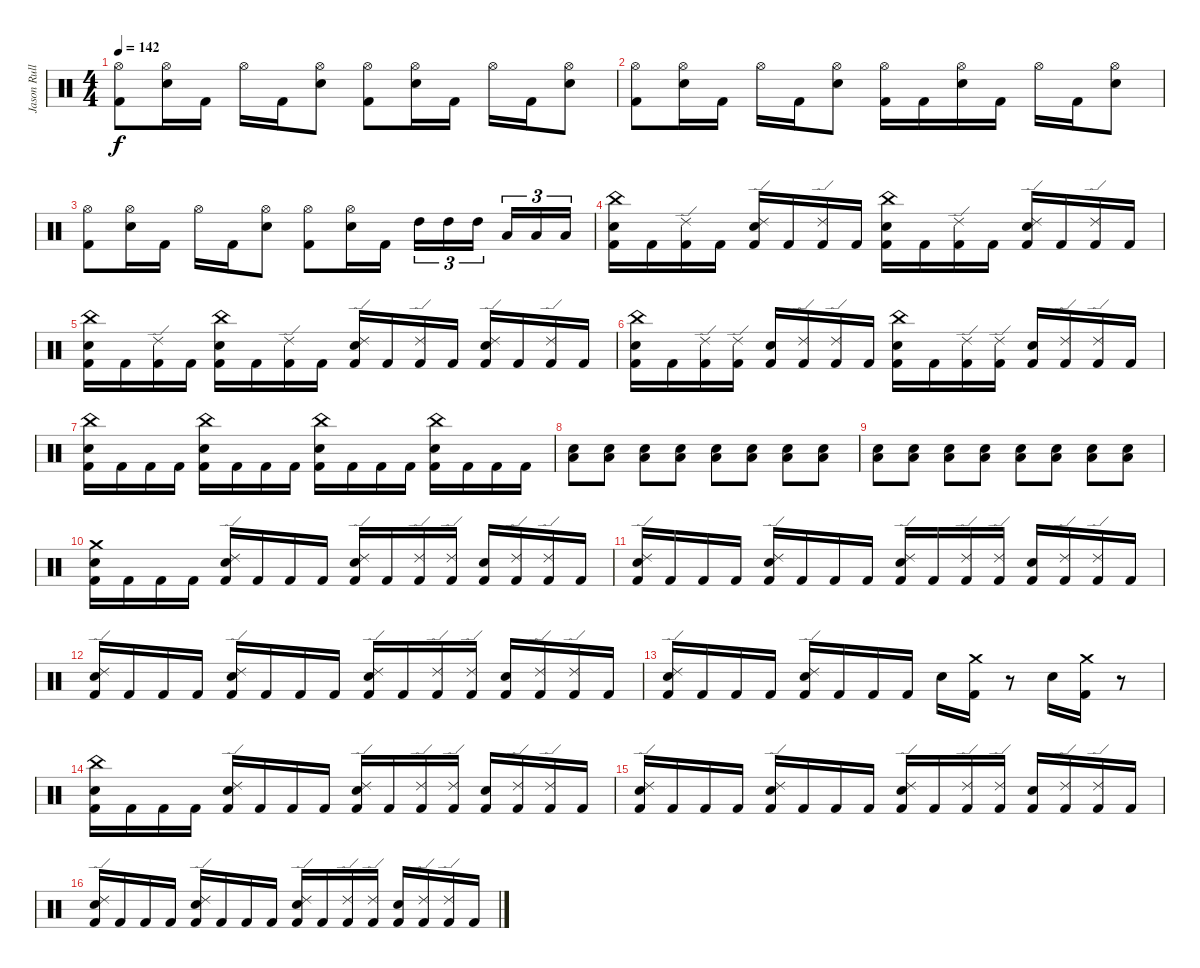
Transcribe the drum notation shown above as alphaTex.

\track ("Jason Rullo (drums)" "Jason Rull") {solo instrument percussion}
\staff {score}
\articulation defaults
\ts (4 4)
\tempo 142
\clef neutral
\ks c
("Hi-Hat (open)" "Kick (hit) 2").8{dy f} ("Hi-Hat (open)" "Electric Snare (hit)").16 "Kick (hit) 2".16 "Hi-Hat (open)".16 "Kick (hit) 2".16 ("Hi-Hat (open)" "Electric Snare (hit)").8 ("Hi-Hat (open)" "Kick (hit) 2").8 ("Hi-Hat (open)" "Electric Snare (hit)").16 "Kick (hit) 2".16 "Hi-Hat (open)".16 "Kick (hit) 2".16 ("Hi-Hat (open)" "Electric Snare (hit)").8 |
("Hi-Hat (open)" "Kick (hit) 2").8 ("Hi-Hat (open)" "Electric Snare (hit)").16 "Kick (hit) 2".16 "Hi-Hat (open)".16 "Kick (hit) 2".16 ("Hi-Hat (open)" "Electric Snare (hit)").8 ("Hi-Hat (open)" "Kick (hit) 2").16 "Kick (hit) 2".16 ("Hi-Hat (open)" "Electric Snare (hit)").16 "Kick (hit) 2".16 "Hi-Hat (open)".16 "Kick (hit) 2".16 ("Hi-Hat (open)" "Electric Snare (hit)").8 |
("Hi-Hat (open)" "Kick (hit) 2").8 ("Hi-Hat (open)" "Electric Snare (hit)").16 "Kick (hit) 2".16 "Hi-Hat (open)".16 "Kick (hit) 2".16 ("Hi-Hat (open)" "Electric Snare (hit)").8 ("Hi-Hat (open)" "Kick (hit) 2").8 ("Hi-Hat (open)" "Electric Snare (hit)").16 "Kick (hit) 2".16 "High Tom (hit)".16{tu (3 2)} "High Tom (hit)".16{tu (3 2)} "High Tom (hit)".16{tu (3 2) beam splitsecondary} "Low Tom (hit)".16{tu (3 2)} "Low Tom (hit)".16{tu (3 2)} "Low Tom (hit)".16{tu (3 2)} |
("China (hit)" "Electric Snare (hit)" "Kick (hit) 2").16 "Kick (hit) 2".16 ("Ride (edge) 2" "Kick (hit) 2").16 "Kick (hit) 2".16 ("Ride (edge) 2" "Electric Snare (hit)" "Kick (hit) 2").16 "Kick (hit) 2".16 ("Ride (edge) 2" "Kick (hit) 2").16 "Kick (hit) 2".16 ("China (hit)" "Electric Snare (hit)" "Kick (hit) 2").16 "Kick (hit) 2".16 ("Ride (edge) 2" "Kick (hit) 2").16 "Kick (hit) 2".16 ("Ride (edge) 2" "Electric Snare (hit)" "Kick (hit) 2").16 "Kick (hit) 2".16 ("Ride (edge) 2" "Kick (hit) 2").16 "Kick (hit) 2".16 |
("China (hit)" "Electric Snare (hit)" "Kick (hit) 2").16 "Kick (hit) 2".16 ("Ride (edge) 2" "Kick (hit) 2").16 "Kick (hit) 2".16 ("China (hit)" "Electric Snare (hit)" "Kick (hit) 2").16 "Kick (hit) 2".16 ("Ride (edge) 2" "Kick (hit) 2").16 "Kick (hit) 2".16 ("Ride (edge) 2" "Electric Snare (hit)" "Kick (hit) 2").16 "Kick (hit) 2".16 ("Ride (edge) 2" "Kick (hit) 2").16 "Kick (hit) 2".16 ("Ride (edge) 2" "Electric Snare (hit)" "Kick (hit) 2").16 "Kick (hit) 2".16 ("Ride (edge) 2" "Kick (hit) 2").16 "Kick (hit) 2".16 |
("China (hit)" "Electric Snare (hit)" "Kick (hit) 2").16 "Kick (hit) 2".16 ("Kick (hit) 2" "Ride (edge) 2").16 ("Kick (hit) 2" "Ride (edge) 2").16 ("Electric Snare (hit)" "Kick (hit) 2").16 ("Kick (hit) 2" "Ride (edge) 2").16 ("Kick (hit) 2" "Ride (edge) 2").16 "Kick (hit) 2".16 ("China (hit)" "Electric Snare (hit)" "Kick (hit) 2").16 "Kick (hit) 2".16 ("Kick (hit) 2" "Ride (edge) 2").16 ("Kick (hit) 2" "Ride (edge) 2").16 ("Electric Snare (hit)" "Kick (hit) 2").16 ("Kick (hit) 2" "Ride (edge) 2").16 ("Kick (hit) 2" "Ride (edge) 2").16 "Kick (hit) 2".16 |
("China (hit)" "Electric Snare (hit)" "Kick (hit) 2").16 "Kick (hit) 2".16 "Kick (hit) 2".16 "Kick (hit) 2".16 ("China (hit)" "Electric Snare (hit)" "Kick (hit) 2").16 "Kick (hit) 2".16 "Kick (hit) 2".16 "Kick (hit) 2".16 ("China (hit)" "Electric Snare (hit)" "Kick (hit) 2").16 "Kick (hit) 2".16 "Kick (hit) 2".16 "Kick (hit) 2".16 ("China (hit)" "Electric Snare (hit)" "Kick (hit) 2").16 "Kick (hit) 2".16 "Kick (hit) 2".16 "Kick (hit) 2".16 |
("Low Tom (hit)" "Electric Snare (hit)").8{volume 6} ("Electric Snare (hit)" "Low Tom (hit)").8{volume 7} ("Low Tom (hit)" "Electric Snare (hit)").8{volume 7} ("Low Tom (hit)" "Electric Snare (hit)").8{volume 8} ("Low Tom (hit)" "Electric Snare (hit)").8{volume 9} ("Low Tom (hit)" "Electric Snare (hit)").8{volume 9} ("Low Tom (hit)" "Electric Snare (hit)").8{volume 10} ("Low Tom (hit)" "Electric Snare (hit)").8{volume 10} |
("Low Tom (hit)" "Electric Snare (hit)").8{volume 11} ("Electric Snare (hit)" "Low Tom (hit)").8{volume 12} ("Low Tom (hit)" "Electric Snare (hit)").8{volume 12} ("Low Tom (hit)" "Electric Snare (hit)").8{volume 13} ("Low Tom (hit)" "Electric Snare (hit)").8{volume 13} ("Low Tom (hit)" "Electric Snare (hit)").8{volume 14} ("Low Tom (hit)" "Electric Snare (hit)").8{volume 15} ("Low Tom (hit)" "Electric Snare (hit)").8{volume 15} |
("Crash medium (hit)" "Kick (hit) 2" "Electric Snare (hit)").16{volume 16} "Kick (hit) 2".16 "Kick (hit) 2".16 "Kick (hit) 2".16 ("Ride (edge) 2" "Kick (hit) 2" "Electric Snare (hit)").16 "Kick (hit) 2".16 "Kick (hit) 2".16 "Kick (hit) 2".16 ("Ride (edge) 2" "Kick (hit) 2" "Electric Snare (hit)").16 "Kick (hit) 2".16 ("Ride (edge) 2" "Kick (hit) 2").16 ("Ride (edge) 2" "Kick (hit) 2").16 ("Kick (hit) 2" "Electric Snare (hit)").16 ("Ride (edge) 2" "Kick (hit) 2").16 ("Ride (edge) 2" "Kick (hit) 2").16 "Kick (hit) 2".16 |
("Ride (edge) 2" "Kick (hit) 2" "Electric Snare (hit)").16 "Kick (hit) 2".16 "Kick (hit) 2".16 "Kick (hit) 2".16 ("Ride (edge) 2" "Kick (hit) 2" "Electric Snare (hit)").16 "Kick (hit) 2".16 "Kick (hit) 2".16 "Kick (hit) 2".16 ("Ride (edge) 2" "Kick (hit) 2" "Electric Snare (hit)").16 "Kick (hit) 2".16 ("Ride (edge) 2" "Kick (hit) 2").16 ("Ride (edge) 2" "Kick (hit) 2").16 ("Kick (hit) 2" "Electric Snare (hit)").16 ("Ride (edge) 2" "Kick (hit) 2").16 ("Ride (edge) 2" "Kick (hit) 2").16 "Kick (hit) 2".16 |
("Ride (edge) 2" "Kick (hit) 2" "Electric Snare (hit)").16 "Kick (hit) 2".16 "Kick (hit) 2".16 "Kick (hit) 2".16 ("Ride (edge) 2" "Kick (hit) 2" "Electric Snare (hit)").16 "Kick (hit) 2".16 "Kick (hit) 2".16 "Kick (hit) 2".16 ("Ride (edge) 2" "Kick (hit) 2" "Electric Snare (hit)").16 "Kick (hit) 2".16 ("Ride (edge) 2" "Kick (hit) 2").16 ("Ride (edge) 2" "Kick (hit) 2").16 ("Kick (hit) 2" "Electric Snare (hit)").16 ("Ride (edge) 2" "Kick (hit) 2").16 ("Ride (edge) 2" "Kick (hit) 2").16 "Kick (hit) 2".16 |
("Ride (edge) 2" "Kick (hit) 2" "Electric Snare (hit)").16 "Kick (hit) 2".16 "Kick (hit) 2".16 "Kick (hit) 2".16 ("Ride (edge) 2" "Kick (hit) 2" "Electric Snare (hit)").16 "Kick (hit) 2".16 "Kick (hit) 2".16 "Kick (hit) 2".16 "Electric Snare (hit)".16 ("Kick (hit) 2" "Crash medium (hit)").16 r.8 "Electric Snare (hit)".16 ("Kick (hit) 2" "Crash medium (hit)").16 r.8 |
("China (hit)" "Kick (hit) 2" "Electric Snare (hit)").16 "Kick (hit) 2".16 "Kick (hit) 2".16 "Kick (hit) 2".16 ("Ride (edge) 2" "Kick (hit) 2" "Electric Snare (hit)").16 "Kick (hit) 2".16 "Kick (hit) 2".16 "Kick (hit) 2".16 ("Ride (edge) 2" "Kick (hit) 2" "Electric Snare (hit)").16 "Kick (hit) 2".16 ("Ride (edge) 2" "Kick (hit) 2").16 ("Ride (edge) 2" "Kick (hit) 2").16 ("Kick (hit) 2" "Electric Snare (hit)").16 ("Ride (edge) 2" "Kick (hit) 2").16 ("Ride (edge) 2" "Kick (hit) 2").16 "Kick (hit) 2".16 |
("Ride (edge) 2" "Kick (hit) 2" "Electric Snare (hit)").16 "Kick (hit) 2".16 "Kick (hit) 2".16 "Kick (hit) 2".16 ("Ride (edge) 2" "Kick (hit) 2" "Electric Snare (hit)").16 "Kick (hit) 2".16 "Kick (hit) 2".16 "Kick (hit) 2".16 ("Ride (edge) 2" "Kick (hit) 2" "Electric Snare (hit)").16 "Kick (hit) 2".16 ("Ride (edge) 2" "Kick (hit) 2").16 ("Ride (edge) 2" "Kick (hit) 2").16 ("Kick (hit) 2" "Electric Snare (hit)").16 ("Ride (edge) 2" "Kick (hit) 2").16 ("Ride (edge) 2" "Kick (hit) 2").16 "Kick (hit) 2".16 |
("Ride (edge) 2" "Kick (hit) 2" "Electric Snare (hit)").16 "Kick (hit) 2".16 "Kick (hit) 2".16 "Kick (hit) 2".16 ("Ride (edge) 2" "Kick (hit) 2" "Electric Snare (hit)").16 "Kick (hit) 2".16 "Kick (hit) 2".16 "Kick (hit) 2".16 ("Ride (edge) 2" "Kick (hit) 2" "Electric Snare (hit)").16 "Kick (hit) 2".16 ("Ride (edge) 2" "Kick (hit) 2").16 ("Ride (edge) 2" "Kick (hit) 2").16 ("Kick (hit) 2" "Electric Snare (hit)").16 ("Ride (edge) 2" "Kick (hit) 2").16 ("Ride (edge) 2" "Kick (hit) 2").16 "Kick (hit) 2".16
